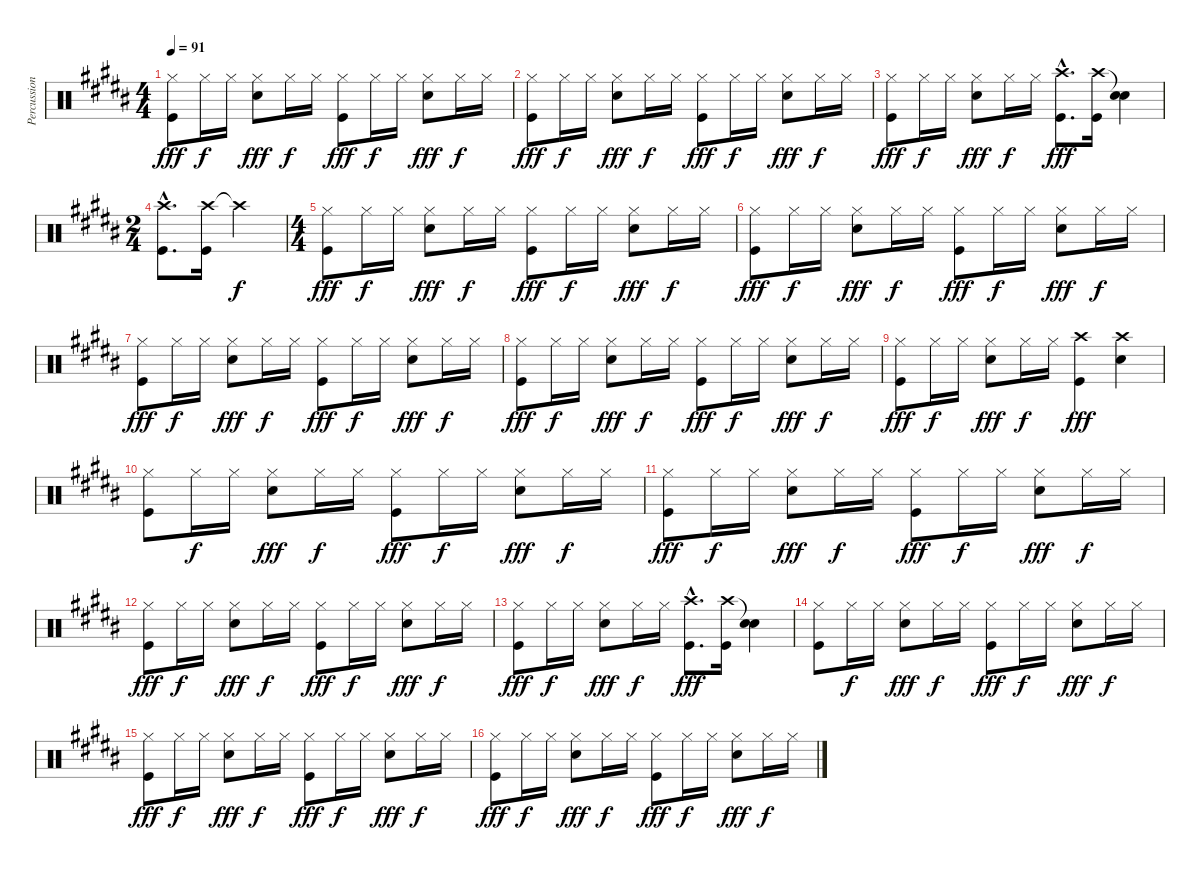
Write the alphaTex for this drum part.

\track ("Percussion" "Percussion") {instrument percussion}
\staff {score}
\articulation defaults
\ts (4 4)
\tempo 91
\clef neutral
\ks b
("Hi-Hat (closed)" "Kick (hit)").8{dy fff} "Hi-Hat (closed)".16{dy f} "Hi-Hat (closed)".16 ("Hi-Hat (closed)" "Electric Snare (hit)").8{dy fff} "Hi-Hat (closed)".16{dy f} "Hi-Hat (closed)".16 ("Hi-Hat (closed)" "Kick (hit)").8{dy fff} "Hi-Hat (closed)".16{dy f} "Hi-Hat (closed)".16 ("Hi-Hat (closed)" "Electric Snare (hit)").8{dy fff} "Hi-Hat (closed)".16{dy f} "Hi-Hat (closed)".16 |
("Hi-Hat (closed)" "Kick (hit)").8{dy fff} "Hi-Hat (closed)".16{dy f} "Hi-Hat (closed)".16 ("Hi-Hat (closed)" "Electric Snare (hit)").8{dy fff} "Hi-Hat (closed)".16{dy f} "Hi-Hat (closed)".16 ("Hi-Hat (closed)" "Kick (hit)").8{dy fff} "Hi-Hat (closed)".16{dy f} "Hi-Hat (closed)".16 ("Hi-Hat (closed)" "Electric Snare (hit)").8{dy fff} "Hi-Hat (closed)".16{dy f} "Hi-Hat (closed)".16 |
("Hi-Hat (closed)" "Kick (hit)").8{dy fff} "Hi-Hat (closed)".16{dy f} "Hi-Hat (closed)".16 ("Hi-Hat (closed)" "Electric Snare (hit)").8{dy fff} "Hi-Hat (closed)".16{dy f} "Hi-Hat (closed)".16 ("Crash high (hit)"{hac} "Kick (hit)"{hac}).8{d dy fff} ("Crash high (hit)" "Kick (hit)").16 ("Snare (hit)"{t} "Electric Snare (hit)").4 |
\ts (2 4)
("Crash high (hit)"{hac} "Kick (hit)"{hac}).8{d} ("Crash high (hit)" "Kick (hit)").16 "Crash high (hit)"{t}.4{dy f} |
\ts (4 4)
("Hi-Hat (closed)" "Kick (hit)").8{dy fff} "Hi-Hat (closed)".16{dy f} "Hi-Hat (closed)".16 ("Hi-Hat (closed)" "Electric Snare (hit)").8{dy fff} "Hi-Hat (closed)".16{dy f} "Hi-Hat (closed)".16 ("Hi-Hat (closed)" "Kick (hit)").8{dy fff} "Hi-Hat (closed)".16{dy f} "Hi-Hat (closed)".16 ("Hi-Hat (closed)" "Electric Snare (hit)").8{dy fff} "Hi-Hat (closed)".16{dy f} "Hi-Hat (closed)".16 |
("Hi-Hat (closed)" "Kick (hit)").8{dy fff} "Hi-Hat (closed)".16{dy f} "Hi-Hat (closed)".16 ("Hi-Hat (closed)" "Electric Snare (hit)").8{dy fff} "Hi-Hat (closed)".16{dy f} "Hi-Hat (closed)".16 ("Hi-Hat (closed)" "Kick (hit)").8{dy fff} "Hi-Hat (closed)".16{dy f} "Hi-Hat (closed)".16 ("Hi-Hat (closed)" "Electric Snare (hit)").8{dy fff} "Hi-Hat (closed)".16{dy f} "Hi-Hat (closed)".16 |
("Hi-Hat (closed)" "Kick (hit)").8{dy fff} "Hi-Hat (closed)".16{dy f} "Hi-Hat (closed)".16 ("Hi-Hat (closed)" "Electric Snare (hit)").8{dy fff} "Hi-Hat (closed)".16{dy f} "Hi-Hat (closed)".16 ("Hi-Hat (closed)" "Kick (hit)").8{dy fff} "Hi-Hat (closed)".16{dy f} "Hi-Hat (closed)".16 ("Hi-Hat (closed)" "Electric Snare (hit)").8{dy fff} "Hi-Hat (closed)".16{dy f} "Hi-Hat (closed)".16 |
("Hi-Hat (closed)" "Kick (hit)").8{dy fff} "Hi-Hat (closed)".16{dy f} "Hi-Hat (closed)".16 ("Hi-Hat (closed)" "Electric Snare (hit)").8{dy fff} "Hi-Hat (closed)".16{dy f} "Hi-Hat (closed)".16 ("Hi-Hat (closed)" "Kick (hit)").8{dy fff} "Hi-Hat (closed)".16{dy f} "Hi-Hat (closed)".16 ("Hi-Hat (closed)" "Electric Snare (hit)").8{dy fff} "Hi-Hat (closed)".16{dy f} "Hi-Hat (closed)".16 |
("Hi-Hat (closed)" "Kick (hit)").8{dy fff} "Hi-Hat (closed)".16{dy f} "Hi-Hat (closed)".16 ("Hi-Hat (closed)" "Electric Snare (hit)").8{dy fff} "Hi-Hat (closed)".16{dy f} "Hi-Hat (closed)".16 ("Crash high (hit)" "Kick (hit)").4{dy fff} ("Crash high (hit)" "Electric Snare (hit)").4 |
("Hi-Hat (closed)" "Kick (hit)").8 "Hi-Hat (closed)".16{dy f} "Hi-Hat (closed)".16 ("Hi-Hat (closed)" "Electric Snare (hit)").8{dy fff} "Hi-Hat (closed)".16{dy f} "Hi-Hat (closed)".16 ("Hi-Hat (closed)" "Kick (hit)").8{dy fff} "Hi-Hat (closed)".16{dy f} "Hi-Hat (closed)".16 ("Hi-Hat (closed)" "Electric Snare (hit)").8{dy fff} "Hi-Hat (closed)".16{dy f} "Hi-Hat (closed)".16 |
("Hi-Hat (closed)" "Kick (hit)").8{dy fff} "Hi-Hat (closed)".16{dy f} "Hi-Hat (closed)".16 ("Hi-Hat (closed)" "Electric Snare (hit)").8{dy fff} "Hi-Hat (closed)".16{dy f} "Hi-Hat (closed)".16 ("Hi-Hat (closed)" "Kick (hit)").8{dy fff} "Hi-Hat (closed)".16{dy f} "Hi-Hat (closed)".16 ("Hi-Hat (closed)" "Electric Snare (hit)").8{dy fff} "Hi-Hat (closed)".16{dy f} "Hi-Hat (closed)".16 |
("Hi-Hat (closed)" "Kick (hit)").8{dy fff} "Hi-Hat (closed)".16{dy f} "Hi-Hat (closed)".16 ("Hi-Hat (closed)" "Electric Snare (hit)").8{dy fff} "Hi-Hat (closed)".16{dy f} "Hi-Hat (closed)".16 ("Hi-Hat (closed)" "Kick (hit)").8{dy fff} "Hi-Hat (closed)".16{dy f} "Hi-Hat (closed)".16 ("Hi-Hat (closed)" "Electric Snare (hit)").8{dy fff} "Hi-Hat (closed)".16{dy f} "Hi-Hat (closed)".16 |
("Hi-Hat (closed)" "Kick (hit)").8{dy fff} "Hi-Hat (closed)".16{dy f} "Hi-Hat (closed)".16 ("Hi-Hat (closed)" "Electric Snare (hit)").8{dy fff} "Hi-Hat (closed)".16{dy f} "Hi-Hat (closed)".16 ("Crash high (hit)"{hac} "Kick (hit)"{hac}).8{d dy fff} ("Crash high (hit)" "Kick (hit)").16 ("Snare (hit)"{t} "Electric Snare (hit)").4 |
("Hi-Hat (closed)" "Kick (hit)").8 "Hi-Hat (closed)".16{dy f} "Hi-Hat (closed)".16 ("Hi-Hat (closed)" "Electric Snare (hit)").8{dy fff} "Hi-Hat (closed)".16{dy f} "Hi-Hat (closed)".16 ("Hi-Hat (closed)" "Kick (hit)").8{dy fff} "Hi-Hat (closed)".16{dy f} "Hi-Hat (closed)".16 ("Hi-Hat (closed)" "Electric Snare (hit)").8{dy fff} "Hi-Hat (closed)".16{dy f} "Hi-Hat (closed)".16 |
("Hi-Hat (closed)" "Kick (hit)").8{dy fff} "Hi-Hat (closed)".16{dy f} "Hi-Hat (closed)".16 ("Hi-Hat (closed)" "Electric Snare (hit)").8{dy fff} "Hi-Hat (closed)".16{dy f} "Hi-Hat (closed)".16 ("Hi-Hat (closed)" "Kick (hit)").8{dy fff} "Hi-Hat (closed)".16{dy f} "Hi-Hat (closed)".16 ("Hi-Hat (closed)" "Electric Snare (hit)").8{dy fff} "Hi-Hat (closed)".16{dy f} "Hi-Hat (closed)".16 |
("Hi-Hat (closed)" "Kick (hit)").8{dy fff} "Hi-Hat (closed)".16{dy f} "Hi-Hat (closed)".16 ("Hi-Hat (closed)" "Electric Snare (hit)").8{dy fff} "Hi-Hat (closed)".16{dy f} "Hi-Hat (closed)".16 ("Hi-Hat (closed)" "Kick (hit)").8{dy fff} "Hi-Hat (closed)".16{dy f} "Hi-Hat (closed)".16 ("Hi-Hat (closed)" "Electric Snare (hit)").8{dy fff} "Hi-Hat (closed)".16{dy f} "Hi-Hat (closed)".16
